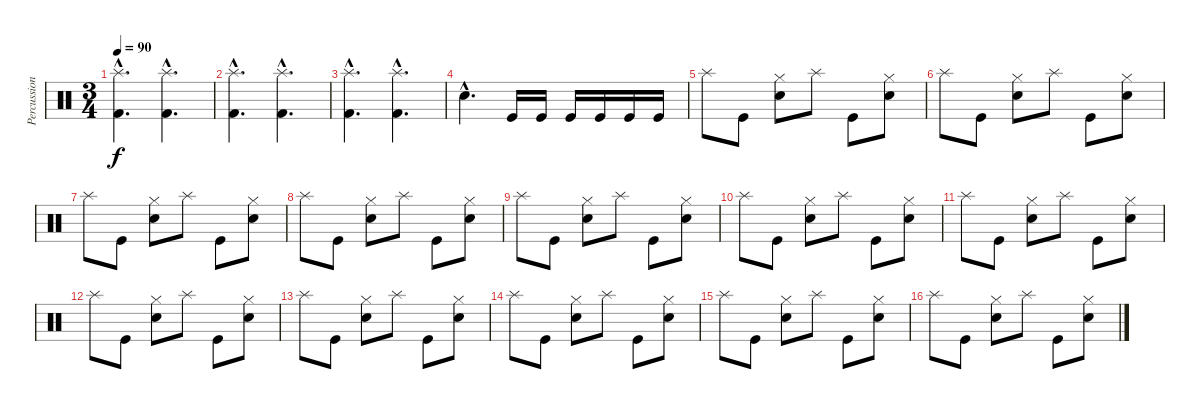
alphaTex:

\track ("Percussions" "Percussion") {instrument percussion}
\staff {score}
\articulation defaults
\ts (3 4)
\tempo 90
\clef neutral
\ks c
("Splash (hit)"{hac} "Kick (hit) 2"{hac}).4{d dy f} ("Splash (hit)"{hac} "Kick (hit) 2"{hac}).4{d} |
("Splash (hit)"{hac} "Kick (hit) 2"{hac}).4{d} ("Splash (hit)"{hac} "Kick (hit) 2"{hac}).4{d} |
("Splash (hit)"{hac} "Kick (hit) 2"{hac}).4{d} ("Splash (hit)"{hac} "Kick (hit) 2"{hac}).4{d} |
"Electric Snare (hit)"{hac}.4{d} "Kick (hit)".16 "Kick (hit)".16 "Kick (hit)".16 "Kick (hit)".16 "Kick (hit)".16 "Kick (hit)".16 |
"Splash (hit)".8 "Kick (hit)".8 ("Electric Snare (hit)" "Hi-Hat (closed)").8 "Splash (hit)".8 "Kick (hit)".8 ("Electric Snare (hit)" "Hi-Hat (closed)").8 |
"Splash (hit)".8 "Kick (hit)".8 ("Electric Snare (hit)" "Hi-Hat (closed)").8 "Splash (hit)".8 "Kick (hit)".8 ("Electric Snare (hit)" "Hi-Hat (closed)").8 |
"Splash (hit)".8 "Kick (hit)".8 ("Electric Snare (hit)" "Hi-Hat (closed)").8 "Splash (hit)".8 "Kick (hit)".8 ("Electric Snare (hit)" "Hi-Hat (closed)").8 |
"Splash (hit)".8 "Kick (hit)".8 ("Electric Snare (hit)" "Hi-Hat (closed)").8 "Splash (hit)".8 "Kick (hit)".8 ("Electric Snare (hit)" "Hi-Hat (closed)").8 |
"Splash (hit)".8 "Kick (hit)".8 ("Electric Snare (hit)" "Hi-Hat (closed)").8 "Splash (hit)".8 "Kick (hit)".8 ("Electric Snare (hit)" "Hi-Hat (closed)").8 |
"Splash (hit)".8 "Kick (hit)".8 ("Electric Snare (hit)" "Hi-Hat (closed)").8 "Splash (hit)".8 "Kick (hit)".8 ("Electric Snare (hit)" "Hi-Hat (closed)").8 |
"Splash (hit)".8 "Kick (hit)".8 ("Electric Snare (hit)" "Hi-Hat (closed)").8 "Splash (hit)".8 "Kick (hit)".8 ("Electric Snare (hit)" "Hi-Hat (closed)").8 |
"Splash (hit)".8 "Kick (hit)".8 ("Electric Snare (hit)" "Hi-Hat (closed)").8 "Splash (hit)".8 "Kick (hit)".8 ("Electric Snare (hit)" "Hi-Hat (closed)").8 |
"Splash (hit)".8 "Kick (hit)".8 ("Electric Snare (hit)" "Hi-Hat (closed)").8 "Splash (hit)".8 "Kick (hit)".8 ("Electric Snare (hit)" "Hi-Hat (closed)").8 |
"Splash (hit)".8 "Kick (hit)".8 ("Electric Snare (hit)" "Hi-Hat (closed)").8 "Splash (hit)".8 "Kick (hit)".8 ("Electric Snare (hit)" "Hi-Hat (closed)").8 |
"Splash (hit)".8 "Kick (hit)".8 ("Electric Snare (hit)" "Hi-Hat (closed)").8 "Splash (hit)".8 "Kick (hit)".8 ("Electric Snare (hit)" "Hi-Hat (closed)").8 |
"Splash (hit)".8 "Kick (hit)".8 ("Electric Snare (hit)" "Hi-Hat (closed)").8 "Splash (hit)".8 "Kick (hit)".8 ("Electric Snare (hit)" "Hi-Hat (closed)").8
